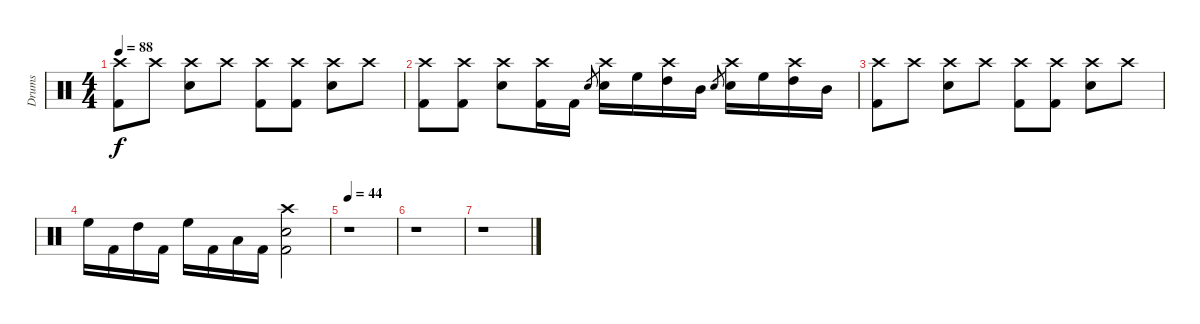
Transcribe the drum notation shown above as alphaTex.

\track ("Drums" "Drums") {instrument percussion}
\staff {score}
\articulation defaults
\ts (4 4)
\tempo 88
\clef neutral
\ks c
("Crash high (hit)" "Kick (hit) 2").8{dy f} "Crash high (hit)".8 ("Crash high (hit)" "Electric Snare (hit)").8 "Crash high (hit)".8 ("Crash high (hit)" "Kick (hit) 2").8 ("Crash high (hit)" "Kick (hit) 2").8 ("Crash high (hit)" "Electric Snare (hit)").8 "Crash high (hit)".8 |
("Crash high (hit)" "Kick (hit) 2").8 ("Crash high (hit)" "Kick (hit) 2").8 ("Crash high (hit)" "Electric Snare (hit)").8 ("Crash high (hit)" "Kick (hit) 2").16 "Kick (hit) 2".16 "Electric Snare (hit)".8{gr} ("Crash high (hit)" "Electric Snare (hit)").16 "High Floor Tom (hit)".16 ("Crash high (hit)" "High Tom (hit)").16 "Mid Tom (hit)".16 "Electric Snare (hit)".8{gr} ("Crash high (hit)" "Electric Snare (hit)").16 "High Floor Tom (hit)".16 ("Crash high (hit)" "High Tom (hit)").16 "Mid Tom (hit)".16 |
("Crash high (hit)" "Kick (hit) 2").8 "Crash high (hit)".8 ("Crash high (hit)" "Electric Snare (hit)").8 "Crash high (hit)".8 ("Crash high (hit)" "Kick (hit) 2").8 ("Crash high (hit)" "Kick (hit) 2").8 ("Crash high (hit)" "Electric Snare (hit)").8 "Crash high (hit)".8 |
"High Floor Tom (hit)".16 "Kick (hit) 2".16 "High Tom (hit)".16 "Kick (hit) 2".16 "High Floor Tom (hit)".16 "Kick (hit) 2".16 "Low Tom (hit)".16 "Kick (hit) 2".16 ("Crash high (hit)" "Electric Snare (hit)" "Kick (hit) 2").2 |
\tempo 44
r.1 |
r.1 |
r.1
